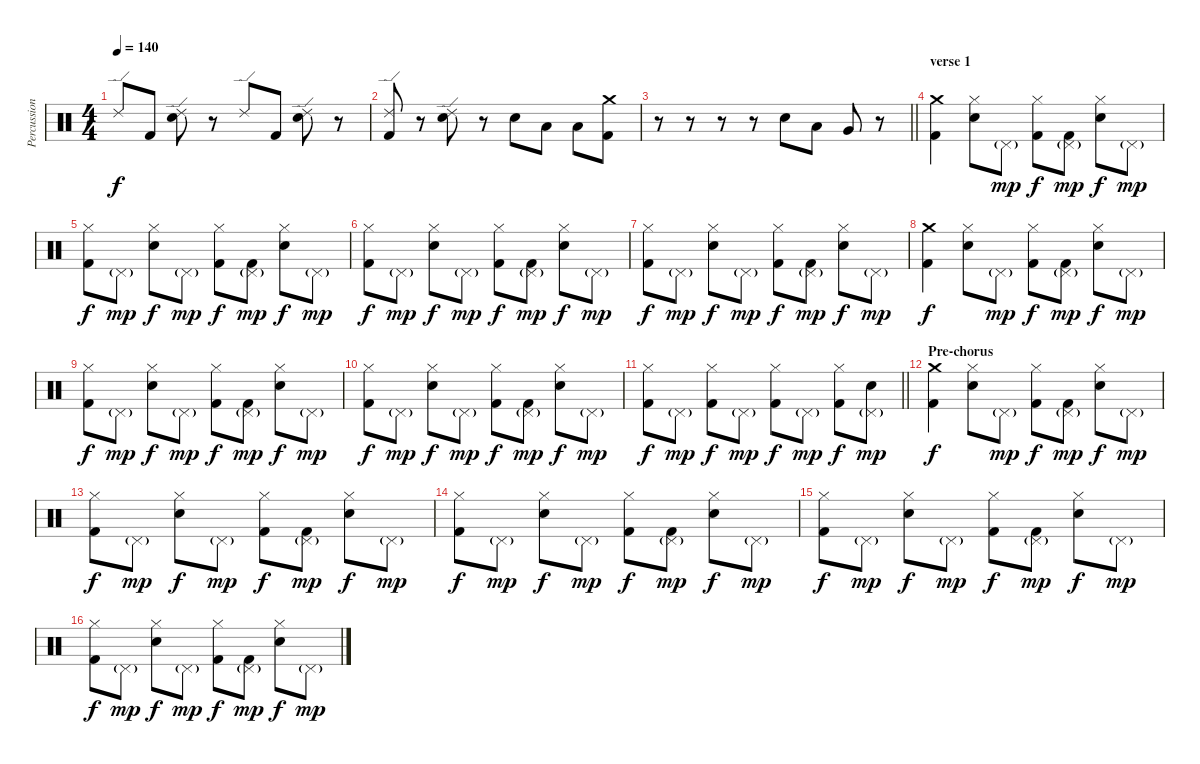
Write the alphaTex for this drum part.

\track ("Percussion" "Percussion") {instrument percussion}
\staff {score}
\articulation defaults
\ts (4 4)
\tempo 140
\clef neutral
\ks c "Ride (edge) 2".8{dy f} "Kick (hit) 2".8
("Ride (edge) 2" "Electric Snare (hit)").8 r.8 "Ride (edge) 2".8 "Kick (hit) 2".8 ("Ride (edge) 2" "Electric Snare (hit)").8 r.8 |
("Ride (edge) 2" "Kick (hit) 2").8 r.8 ("Ride (edge) 2" "Electric Snare (hit)").8 r.8 "Electric Snare (hit)".8 "Low Tom (hit)".8 "Low Tom (hit)".8 ("Crash medium (hit)" "Kick (hit) 2").8 |
\barLineRight lightlight
r.8 r.8 r.8 r.8 "Electric Snare (hit)".8 "Low Tom (hit)".8 "Very Low Tom (hit)".8 r.8 |
\section ("" "verse 1")
("Crash medium (hit)" "Kick (hit) 2").4 ("Hi-Hat (closed)" "Electric Snare (hit)").8 "Pedal Hi-Hat (hit)"{g}.8{dy mp} ("Hi-Hat (closed)" "Kick (hit) 2").8{dy f} ("Pedal Hi-Hat (hit)"{g} "Kick (hit) 2").8{dy mp} ("Hi-Hat (closed)" "Electric Snare (hit)").8{dy f} "Pedal Hi-Hat (hit)"{g}.8{dy mp} |
("Hi-Hat (closed)" "Kick (hit) 2").8{dy f} "Pedal Hi-Hat (hit)"{g}.8{dy mp} ("Hi-Hat (closed)" "Electric Snare (hit)").8{dy f} "Pedal Hi-Hat (hit)"{g}.8{dy mp} ("Hi-Hat (closed)" "Kick (hit) 2").8{dy f} ("Pedal Hi-Hat (hit)"{g} "Kick (hit) 2").8{dy mp} ("Hi-Hat (closed)" "Electric Snare (hit)").8{dy f} "Pedal Hi-Hat (hit)"{g}.8{dy mp} |
("Hi-Hat (closed)" "Kick (hit) 2").8{dy f} "Pedal Hi-Hat (hit)"{g}.8{dy mp} ("Hi-Hat (closed)" "Electric Snare (hit)").8{dy f} "Pedal Hi-Hat (hit)"{g}.8{dy mp} ("Hi-Hat (closed)" "Kick (hit) 2").8{dy f} ("Pedal Hi-Hat (hit)"{g} "Kick (hit) 2").8{dy mp} ("Hi-Hat (closed)" "Electric Snare (hit)").8{dy f} "Pedal Hi-Hat (hit)"{g}.8{dy mp} |
("Hi-Hat (closed)" "Kick (hit) 2").8{dy f} "Pedal Hi-Hat (hit)"{g}.8{dy mp} ("Hi-Hat (closed)" "Electric Snare (hit)").8{dy f} "Pedal Hi-Hat (hit)"{g}.8{dy mp} ("Hi-Hat (closed)" "Kick (hit) 2").8{dy f} ("Pedal Hi-Hat (hit)"{g} "Kick (hit) 2").8{dy mp} ("Hi-Hat (closed)" "Electric Snare (hit)").8{dy f} "Pedal Hi-Hat (hit)"{g}.8{dy mp} |
("Crash medium (hit)" "Kick (hit) 2").4{dy f} ("Hi-Hat (closed)" "Electric Snare (hit)").8 "Pedal Hi-Hat (hit)"{g}.8{dy mp} ("Hi-Hat (closed)" "Kick (hit) 2").8{dy f} ("Pedal Hi-Hat (hit)"{g} "Kick (hit) 2").8{dy mp} ("Hi-Hat (closed)" "Electric Snare (hit)").8{dy f} "Pedal Hi-Hat (hit)"{g}.8{dy mp} |
("Hi-Hat (closed)" "Kick (hit) 2").8{dy f} "Pedal Hi-Hat (hit)"{g}.8{dy mp} ("Hi-Hat (closed)" "Electric Snare (hit)").8{dy f} "Pedal Hi-Hat (hit)"{g}.8{dy mp} ("Hi-Hat (closed)" "Kick (hit) 2").8{dy f} ("Pedal Hi-Hat (hit)"{g} "Kick (hit) 2").8{dy mp} ("Hi-Hat (closed)" "Electric Snare (hit)").8{dy f} "Pedal Hi-Hat (hit)"{g}.8{dy mp} |
("Hi-Hat (closed)" "Kick (hit) 2").8{dy f} "Pedal Hi-Hat (hit)"{g}.8{dy mp} ("Hi-Hat (closed)" "Electric Snare (hit)").8{dy f} "Pedal Hi-Hat (hit)"{g}.8{dy mp} ("Hi-Hat (closed)" "Kick (hit) 2").8{dy f} ("Pedal Hi-Hat (hit)"{g} "Kick (hit) 2").8{dy mp} ("Hi-Hat (closed)" "Electric Snare (hit)").8{dy f} "Pedal Hi-Hat (hit)"{g}.8{dy mp} |
\barLineRight lightlight
("Hi-Hat (closed)" "Kick (hit) 2").8{dy f} "Pedal Hi-Hat (hit)"{g}.8{dy mp} ("Hi-Hat (closed)" "Kick (hit) 2").8{dy f} "Pedal Hi-Hat (hit)"{g}.8{dy mp} ("Hi-Hat (closed)" "Kick (hit) 2").8{dy f} "Pedal Hi-Hat (hit)"{g}.8{dy mp} ("Hi-Hat (closed)" "Kick (hit) 2").8{dy f} ("Pedal Hi-Hat (hit)"{g} "Electric Snare (hit)").8{dy mp} |
\section ("" "Pre-chorus")
("Crash medium (hit)" "Kick (hit) 2").4{dy f} ("Hi-Hat (closed)" "Electric Snare (hit)").8 "Pedal Hi-Hat (hit)"{g}.8{dy mp} ("Hi-Hat (closed)" "Kick (hit) 2").8{dy f} ("Pedal Hi-Hat (hit)"{g} "Kick (hit) 2").8{dy mp} ("Hi-Hat (closed)" "Electric Snare (hit)").8{dy f} "Pedal Hi-Hat (hit)"{g}.8{dy mp} |
("Hi-Hat (closed)" "Kick (hit) 2").8{dy f} "Pedal Hi-Hat (hit)"{g}.8{dy mp} ("Hi-Hat (closed)" "Electric Snare (hit)").8{dy f} "Pedal Hi-Hat (hit)"{g}.8{dy mp} ("Hi-Hat (closed)" "Kick (hit) 2").8{dy f} ("Pedal Hi-Hat (hit)"{g} "Kick (hit) 2").8{dy mp} ("Hi-Hat (closed)" "Electric Snare (hit)").8{dy f} "Pedal Hi-Hat (hit)"{g}.8{dy mp} |
("Hi-Hat (closed)" "Kick (hit) 2").8{dy f} "Pedal Hi-Hat (hit)"{g}.8{dy mp} ("Hi-Hat (closed)" "Electric Snare (hit)").8{dy f} "Pedal Hi-Hat (hit)"{g}.8{dy mp} ("Hi-Hat (closed)" "Kick (hit) 2").8{dy f} ("Pedal Hi-Hat (hit)"{g} "Kick (hit) 2").8{dy mp} ("Hi-Hat (closed)" "Electric Snare (hit)").8{dy f} "Pedal Hi-Hat (hit)"{g}.8{dy mp} |
("Hi-Hat (closed)" "Kick (hit) 2").8{dy f} "Pedal Hi-Hat (hit)"{g}.8{dy mp} ("Hi-Hat (closed)" "Electric Snare (hit)").8{dy f} "Pedal Hi-Hat (hit)"{g}.8{dy mp} ("Hi-Hat (closed)" "Kick (hit) 2").8{dy f} ("Pedal Hi-Hat (hit)"{g} "Kick (hit) 2").8{dy mp} ("Hi-Hat (closed)" "Electric Snare (hit)").8{dy f} "Pedal Hi-Hat (hit)"{g}.8{dy mp} |
("Hi-Hat (closed)" "Kick (hit) 2").8{dy f} "Pedal Hi-Hat (hit)"{g}.8{dy mp} ("Hi-Hat (closed)" "Electric Snare (hit)").8{dy f} "Pedal Hi-Hat (hit)"{g}.8{dy mp} ("Hi-Hat (closed)" "Kick (hit) 2").8{dy f} ("Pedal Hi-Hat (hit)"{g} "Kick (hit) 2").8{dy mp} ("Hi-Hat (closed)" "Electric Snare (hit)").8{dy f} "Pedal Hi-Hat (hit)"{g}.8{dy mp}
